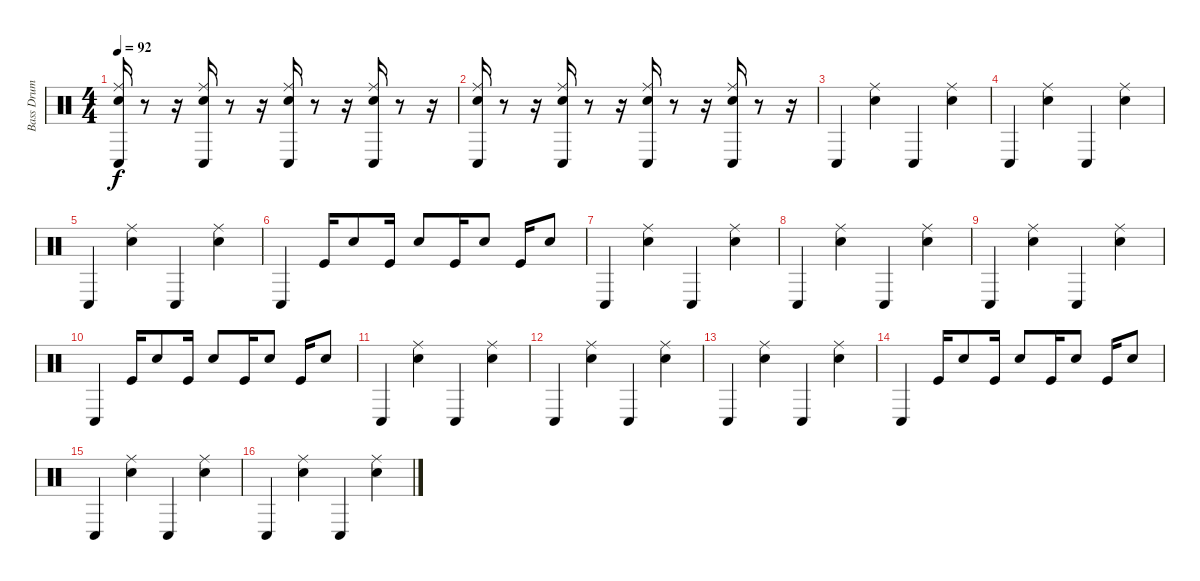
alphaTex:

\track ("Bass Drum" "Bass Drum") {instrument percussion}
\staff {score}
\articulation defaults
\ts (4 4)
\tempo 92
\clef neutral
\ks c
("Conga low (hit)" "Snare (hit) 2" "Ride (middle)").16{dy f} r.8 r.16 ("Conga low (hit)" "Snare (hit) 2" "Ride (middle)").16 r.8 r.16 ("Conga low (hit)" "Snare (hit) 2" "Ride (middle)").16 r.8 r.16 ("Conga low (hit)" "Snare (hit) 2" "Ride (middle)").16 r.8 r.16 |
("Conga low (hit)" "Snare (hit) 2" "Ride (middle)").16 r.8 r.16 ("Conga low (hit)" "Snare (hit) 2" "Ride (middle)").16 r.8 r.16 ("Conga low (hit)" "Snare (hit) 2" "Ride (middle)").16 r.8 r.16 ("Conga low (hit)" "Snare (hit) 2" "Ride (middle)").16 r.8 r.16 |
"Conga low (hit)".4 ("Snare (hit) 2" "Ride (middle)").4 "Conga low (hit)".4 ("Snare (hit) 2" "Ride (middle)").4 |
"Conga low (hit)".4 ("Snare (hit) 2" "Ride (middle)").4 "Conga low (hit)".4 ("Snare (hit) 2" "Ride (middle)").4 |
"Conga low (hit)".4 ("Snare (hit) 2" "Ride (middle)").4 "Conga low (hit)".4 ("Snare (hit) 2" "Ride (middle)").4 |
"Conga low (hit)".4 "Kick (hit)".16 "Snare (hit) 2".8 "Kick (hit)".16 "Snare (hit) 2".8 "Kick (hit)".16 "Snare (hit) 2".8 "Kick (hit)".16 "Snare (hit) 2".8 |
"Conga low (hit)".4 ("Snare (hit) 2" "Ride (middle)").4 "Conga low (hit)".4 ("Snare (hit) 2" "Ride (middle)").4 |
"Conga low (hit)".4 ("Snare (hit) 2" "Ride (middle)").4 "Conga low (hit)".4 ("Snare (hit) 2" "Ride (middle)").4 |
"Conga low (hit)".4 ("Snare (hit) 2" "Ride (middle)").4 "Conga low (hit)".4 ("Snare (hit) 2" "Ride (middle)").4 |
"Conga low (hit)".4 "Kick (hit)".16 "Snare (hit) 2".8 "Kick (hit)".16 "Snare (hit) 2".8 "Kick (hit)".16 "Snare (hit) 2".8 "Kick (hit)".16 "Snare (hit) 2".8 |
"Conga low (hit)".4 ("Snare (hit) 2" "Ride (middle)").4 "Conga low (hit)".4 ("Snare (hit) 2" "Ride (middle)").4 |
"Conga low (hit)".4 ("Snare (hit) 2" "Ride (middle)").4 "Conga low (hit)".4 ("Snare (hit) 2" "Ride (middle)").4 |
"Conga low (hit)".4 ("Snare (hit) 2" "Ride (middle)").4 "Conga low (hit)".4 ("Snare (hit) 2" "Ride (middle)").4 |
"Conga low (hit)".4 "Kick (hit)".16 "Snare (hit) 2".8 "Kick (hit)".16 "Snare (hit) 2".8 "Kick (hit)".16 "Snare (hit) 2".8 "Kick (hit)".16 "Snare (hit) 2".8 |
"Conga low (hit)".4 ("Snare (hit) 2" "Ride (middle)").4 "Conga low (hit)".4 ("Snare (hit) 2" "Ride (middle)").4 |
"Conga low (hit)".4 ("Snare (hit) 2" "Ride (middle)").4 "Conga low (hit)".4 ("Snare (hit) 2" "Ride (middle)").4
